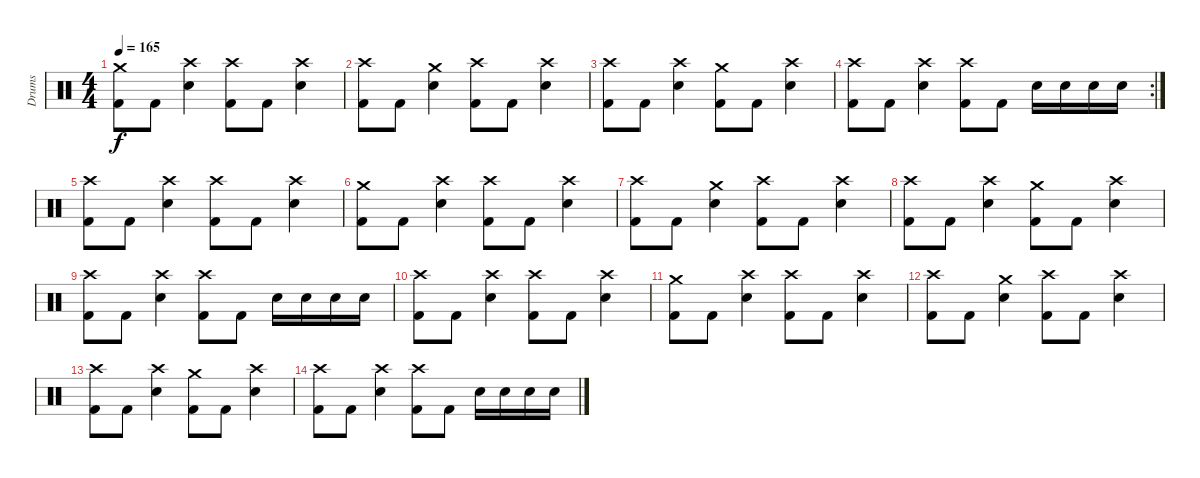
\track ("Drums" "Drums") {instrument percussion}
\staff {score}
\articulation defaults
\ts (4 4)
\tempo 165
\clef neutral
\ks c
("Crash medium (hit)" "Kick (hit) 2").8{dy f} "Kick (hit) 2".8 ("Crash high (hit)" "Electric Snare (hit)").4 ("Crash high (hit)" "Kick (hit) 2").8 "Kick (hit) 2".8 ("Crash high (hit)" "Electric Snare (hit)").4 |
("Crash high (hit)" "Kick (hit) 2").8 "Kick (hit) 2".8 ("Crash medium (hit)" "Electric Snare (hit)").4 ("Crash high (hit)" "Kick (hit) 2").8 "Kick (hit) 2".8 ("Crash high (hit)" "Electric Snare (hit)").4 |
("Crash high (hit)" "Kick (hit) 2").8 "Kick (hit) 2".8 ("Crash high (hit)" "Electric Snare (hit)").4 ("Crash medium (hit)" "Kick (hit) 2").8 "Kick (hit) 2".8 ("Crash high (hit)" "Electric Snare (hit)").4 |
\rc 2
("Crash high (hit)" "Kick (hit) 2").8 "Kick (hit) 2".8 ("Crash high (hit)" "Electric Snare (hit)").4 ("Crash high (hit)" "Kick (hit) 2").8 "Kick (hit) 2".8 "Electric Snare (hit)".16 "Electric Snare (hit)".16 "Electric Snare (hit)".16 "Electric Snare (hit)".16 |
("Crash high (hit)" "Kick (hit) 2").8{volume 9} "Kick (hit) 2".8 ("Crash high (hit)" "Electric Snare (hit)").4 ("Crash high (hit)" "Kick (hit) 2").8 "Kick (hit) 2".8 ("Crash high (hit)" "Electric Snare (hit)").4 |
("Crash medium (hit)" "Kick (hit) 2").8 "Kick (hit) 2".8 ("Crash high (hit)" "Electric Snare (hit)").4 ("Crash high (hit)" "Kick (hit) 2").8 "Kick (hit) 2".8 ("Crash high (hit)" "Electric Snare (hit)").4 |
("Crash high (hit)" "Kick (hit) 2").8 "Kick (hit) 2".8 ("Crash medium (hit)" "Electric Snare (hit)").4 ("Crash high (hit)" "Kick (hit) 2").8 "Kick (hit) 2".8 ("Crash high (hit)" "Electric Snare (hit)").4 |
("Crash high (hit)" "Kick (hit) 2").8 "Kick (hit) 2".8 ("Crash high (hit)" "Electric Snare (hit)").4 ("Crash medium (hit)" "Kick (hit) 2").8 "Kick (hit) 2".8 ("Crash high (hit)" "Electric Snare (hit)").4 |
("Crash high (hit)" "Kick (hit) 2").8 "Kick (hit) 2".8 ("Crash high (hit)" "Electric Snare (hit)").4 ("Crash high (hit)" "Kick (hit) 2").8 "Kick (hit) 2".8 "Electric Snare (hit)".16 "Electric Snare (hit)".16 "Electric Snare (hit)".16 "Electric Snare (hit)".16 |
("Crash high (hit)" "Kick (hit) 2").8{volume 0} "Kick (hit) 2".8 ("Crash high (hit)" "Electric Snare (hit)").4 ("Crash high (hit)" "Kick (hit) 2").8 "Kick (hit) 2".8 ("Crash high (hit)" "Electric Snare (hit)").4 |
("Crash medium (hit)" "Kick (hit) 2").8 "Kick (hit) 2".8 ("Crash high (hit)" "Electric Snare (hit)").4 ("Crash high (hit)" "Kick (hit) 2").8 "Kick (hit) 2".8 ("Crash high (hit)" "Electric Snare (hit)").4 |
("Crash high (hit)" "Kick (hit) 2").8 "Kick (hit) 2".8 ("Crash medium (hit)" "Electric Snare (hit)").4 ("Crash high (hit)" "Kick (hit) 2").8 "Kick (hit) 2".8 ("Crash high (hit)" "Electric Snare (hit)").4 |
("Crash high (hit)" "Kick (hit) 2").8 "Kick (hit) 2".8 ("Crash high (hit)" "Electric Snare (hit)").4 ("Crash medium (hit)" "Kick (hit) 2").8 "Kick (hit) 2".8 ("Crash high (hit)" "Electric Snare (hit)").4 |
("Crash high (hit)" "Kick (hit) 2").8 "Kick (hit) 2".8 ("Crash high (hit)" "Electric Snare (hit)").4 ("Crash high (hit)" "Kick (hit) 2").8 "Kick (hit) 2".8 "Electric Snare (hit)".16 "Electric Snare (hit)".16 "Electric Snare (hit)".16 "Electric Snare (hit)".16
